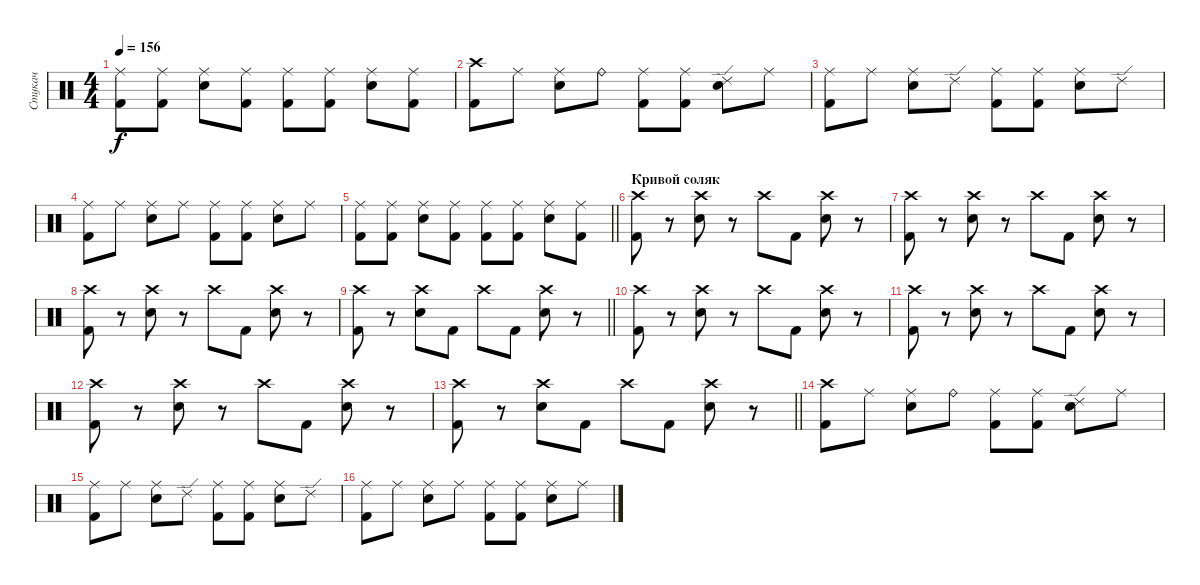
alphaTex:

\track ("Стукач" "Стукач") {instrument percussion}
\staff {score}
\articulation defaults
\ts (4 4)
\tempo 156
\clef neutral
\ks c
("Ride (middle)" "Kick (hit) 2").8{dy f} ("Ride (middle)" "Kick (hit) 2").8 ("Ride (middle)" "Snare (hit) 2").8 ("Ride (middle)" "Kick (hit) 2").8 ("Ride (middle)" "Kick (hit) 2").8 ("Ride (middle)" "Kick (hit) 2").8 ("Ride (middle)" "Snare (hit) 2").8 ("Ride (middle)" "Kick (hit) 2").8 |
("Crash high (hit)" "Kick (hit) 2").8 "Ride (middle)".8 ("Ride (middle)" "Snare (hit) 2").8 "Ride (bell)".8 ("Ride (middle)" "Kick (hit) 2").8 ("Ride (middle)" "Kick (hit) 2").8 ("Ride (edge) 2" "Snare (hit) 2").8 "Ride (middle)".8 |
("Ride (middle)" "Kick (hit) 2").8 "Ride (middle)".8 ("Ride (middle)" "Snare (hit) 2").8 "Ride (edge) 2".8 ("Ride (middle)" "Kick (hit) 2").8 ("Ride (middle)" "Kick (hit) 2").8 ("Ride (middle)" "Snare (hit) 2").8 "Ride (edge) 2".8 |
("Ride (middle)" "Kick (hit) 2").8 "Ride (middle)".8 ("Ride (middle)" "Snare (hit) 2").8 "Ride (middle)".8 ("Ride (middle)" "Kick (hit) 2").8 ("Ride (middle)" "Kick (hit) 2").8 ("Ride (middle)" "Snare (hit) 2").8 "Ride (middle)".8 |
\barLineRight lightlight
("Ride (middle)" "Kick (hit) 2").8 ("Ride (middle)" "Kick (hit) 2").8 ("Ride (middle)" "Snare (hit) 2").8 ("Ride (middle)" "Kick (hit) 2").8 ("Ride (middle)" "Kick (hit) 2").8 ("Ride (middle)" "Kick (hit) 2").8 ("Ride (middle)" "Snare (hit) 2").8 ("Ride (middle)" "Kick (hit) 2").8 |
\section ("" "Кривой соляк")
("Crash high (hit)" "Kick (hit) 2").8 r.8 ("Crash high (hit)" "Snare (hit) 2").8 r.8 "Crash high (hit)".8 "Kick (hit) 2".8 ("Crash high (hit)" "Snare (hit) 2").8 r.8 |
("Crash high (hit)" "Kick (hit) 2").8 r.8 ("Crash high (hit)" "Snare (hit) 2").8 r.8 "Crash high (hit)".8 "Kick (hit) 2".8 ("Crash high (hit)" "Snare (hit) 2").8 r.8 |
("Crash high (hit)" "Kick (hit) 2").8 r.8 ("Crash high (hit)" "Snare (hit) 2").8 r.8 "Crash high (hit)".8 "Kick (hit) 2".8 ("Crash high (hit)" "Snare (hit) 2").8 r.8 |
\barLineRight lightlight
("Crash high (hit)" "Kick (hit) 2").8 r.8 ("Crash high (hit)" "Snare (hit) 2").8 "Kick (hit) 2".8 "Crash high (hit)".8 "Kick (hit) 2".8 ("Crash high (hit)" "Snare (hit) 2").8 r.8 |
("Crash high (hit)" "Kick (hit) 2").8 r.8 ("Crash high (hit)" "Snare (hit) 2").8 r.8 "Crash high (hit)".8 "Kick (hit) 2".8 ("Crash high (hit)" "Snare (hit) 2").8 r.8 |
("Crash high (hit)" "Kick (hit) 2").8 r.8 ("Crash high (hit)" "Snare (hit) 2").8 r.8 "Crash high (hit)".8 "Kick (hit) 2".8 ("Crash high (hit)" "Snare (hit) 2").8 r.8 |
("Crash high (hit)" "Kick (hit) 2").8 r.8 ("Crash high (hit)" "Snare (hit) 2").8 r.8 "Crash high (hit)".8 "Kick (hit) 2".8 ("Crash high (hit)" "Snare (hit) 2").8 r.8 |
\barLineRight lightlight
("Crash high (hit)" "Kick (hit) 2").8 r.8 ("Crash high (hit)" "Snare (hit) 2").8 "Kick (hit) 2".8 "Crash high (hit)".8 "Kick (hit) 2".8 ("Crash high (hit)" "Snare (hit) 2").8 r.8 |
("Crash high (hit)" "Kick (hit) 2").8 "Ride (middle)".8 ("Ride (middle)" "Snare (hit) 2").8 "Ride (bell)".8 ("Ride (middle)" "Kick (hit) 2").8 ("Ride (middle)" "Kick (hit) 2").8 ("Ride (edge) 2" "Snare (hit) 2").8 "Ride (middle)".8 |
("Ride (middle)" "Kick (hit) 2").8 "Ride (middle)".8 ("Ride (middle)" "Snare (hit) 2").8 "Ride (edge) 2".8 ("Ride (middle)" "Kick (hit) 2").8 ("Ride (middle)" "Kick (hit) 2").8 ("Ride (middle)" "Snare (hit) 2").8 "Ride (edge) 2".8 |
("Ride (middle)" "Kick (hit) 2").8 "Ride (middle)".8 ("Ride (middle)" "Snare (hit) 2").8 "Ride (middle)".8 ("Ride (middle)" "Kick (hit) 2").8 ("Ride (middle)" "Kick (hit) 2").8 ("Ride (middle)" "Snare (hit) 2").8 "Ride (middle)".8
